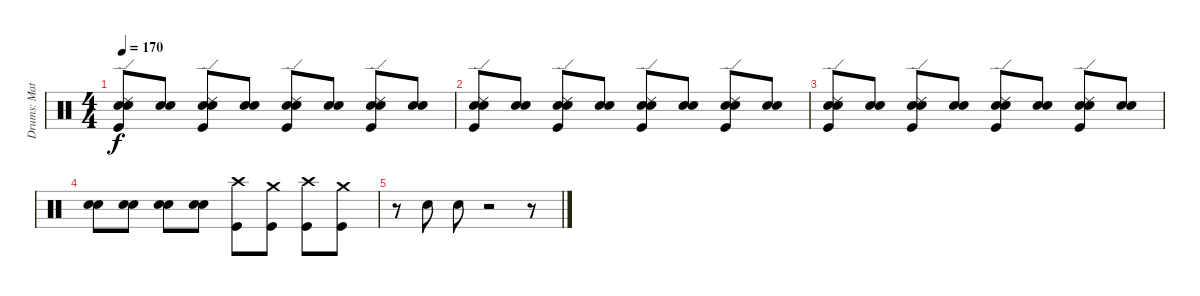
\track ("Drums: Matt" "Drums: Mat") {solo instrument percussion}
\staff {score}
\articulation defaults
\ts (4 4)
\tempo 170
\clef neutral
\ks c
("Snare (hit) 2" "Ride (edge) 2" "Kick (hit)" "Snare (hit) 2").8{dy f} ("Snare (hit) 2" "Snare (hit) 2").8 ("Kick (hit)" "Ride (edge) 2" "Snare (hit) 2" "Snare (hit) 2").8 ("Snare (hit) 2" "Snare (hit) 2").8 ("Snare (hit) 2" "Ride (edge) 2" "Kick (hit)" "Snare (hit) 2").8 ("Snare (hit) 2" "Snare (hit) 2").8 ("Snare (hit) 2" "Kick (hit)" "Ride (edge) 2" "Snare (hit) 2").8 ("Snare (hit) 2" "Snare (hit) 2").8 |
("Ride (edge) 2" "Kick (hit)" "Snare (hit) 2" "Snare (hit) 2").8 ("Snare (hit) 2" "Snare (hit) 2").8 ("Kick (hit)" "Snare (hit) 2" "Ride (edge) 2" "Snare (hit) 2").8 ("Snare (hit) 2" "Snare (hit) 2").8 ("Snare (hit) 2" "Ride (edge) 2" "Kick (hit)" "Snare (hit) 2").8 ("Snare (hit) 2" "Snare (hit) 2").8 ("Ride (edge) 2" "Snare (hit) 2" "Kick (hit)" "Snare (hit) 2").8 ("Snare (hit) 2" "Snare (hit) 2").8 |
("Snare (hit) 2" "Kick (hit)" "Ride (edge) 2" "Snare (hit) 2").8 ("Snare (hit) 2" "Snare (hit) 2").8 ("Kick (hit)" "Snare (hit) 2" "Ride (edge) 2" "Snare (hit) 2").8 ("Snare (hit) 2" "Snare (hit) 2").8 ("Kick (hit)" "Snare (hit) 2" "Ride (edge) 2" "Snare (hit) 2").8 ("Snare (hit) 2" "Snare (hit) 2").8 ("Ride (edge) 2" "Snare (hit) 2" "Kick (hit)" "Snare (hit) 2").8 ("Snare (hit) 2" "Snare (hit) 2").8 |
("Snare (hit) 2" "Snare (hit) 2").8 ("Snare (hit) 2" "Snare (hit) 2").8 ("Snare (hit) 2" "Snare (hit) 2").8 ("Snare (hit) 2" "Snare (hit) 2").8 ("Kick (hit)" "Crash high (hit)").8 ("Crash medium (hit)" "Kick (hit)").8 ("Crash high (hit)" "Kick (hit)").8 ("Crash medium (hit)" "Kick (hit)").8 |
r.8 "Snare (hit) 2".8 "Snare (hit) 2".8 r.2 r.8
